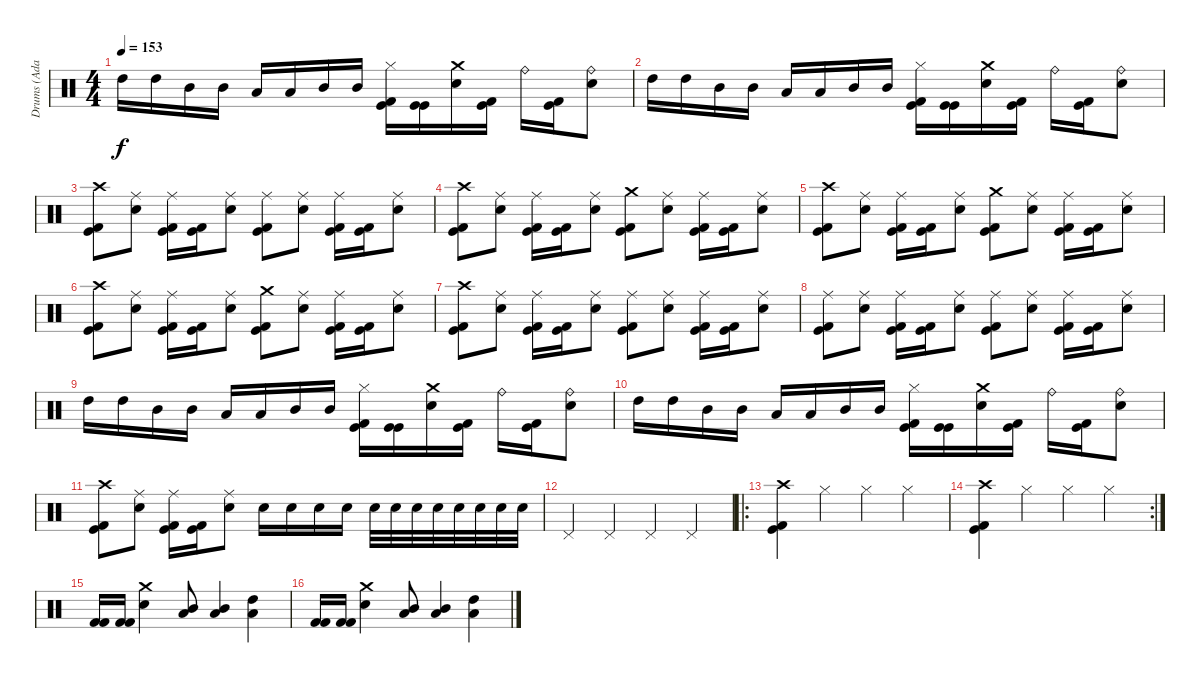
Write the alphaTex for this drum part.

\track ("Drums (Adam)" "Drums (Ada") {instrument percussion}
\staff {score}
\articulation defaults
\ts (4 4)
\tempo 153
\clef neutral
\ks c "High Tom (hit)".16{dy f} "High Tom (hit)".16 "Mid Tom (hit)".16 "Mid Tom (hit)".16 "Low Tom (hit)".16 "Low Tom (hit)".16 "Mid Tom (hit)".16 "Mid Tom (hit)".16
("Hi-Hat (closed)" "Kick (hit)" "Kick (hit) 2").16 ("Kick (hit)" "Kick (hit)").16 ("Crash medium (hit)" "Snare (hit) 2").16 ("Kick (hit)" "Kick (hit) 2").16 "Ride (bell)".16 ("Kick (hit)" "Kick (hit) 2").16 ("Ride (bell)" "Snare (hit) 2").8 |
"High Tom (hit)".16 "High Tom (hit)".16 "Mid Tom (hit)".16 "Mid Tom (hit)".16 "Low Tom (hit)".16 "Low Tom (hit)".16 "Mid Tom (hit)".16 "Mid Tom (hit)".16 ("Hi-Hat (closed)" "Kick (hit)" "Kick (hit) 2").16 ("Kick (hit)" "Kick (hit)").16 ("Crash medium (hit)" "Snare (hit) 2").16 ("Kick (hit)" "Kick (hit) 2").16 "Ride (bell)".16 ("Kick (hit)" "Kick (hit) 2").16 ("Ride (bell)" "Snare (hit) 2").8 |
("Crash high (hit)" "Kick (hit)" "Kick (hit) 2").8 ("Ride (middle)" "Snare (hit) 2").8 ("Ride (middle)" "Kick (hit)" "Kick (hit) 2").16 ("Kick (hit)" "Kick (hit) 2").16 ("Ride (middle)" "Snare (hit) 2").8 ("Ride (middle)" "Kick (hit)" "Kick (hit) 2").8 ("Ride (middle)" "Snare (hit) 2").8 ("Ride (middle)" "Kick (hit)" "Kick (hit) 2").16 ("Kick (hit)" "Kick (hit) 2").16 ("Ride (middle)" "Snare (hit) 2").8 |
("Crash high (hit)" "Kick (hit)" "Kick (hit) 2").8 ("Ride (middle)" "Snare (hit) 2").8 ("Ride (middle)" "Kick (hit)" "Kick (hit) 2").16 ("Kick (hit)" "Kick (hit) 2").16 ("Ride (middle)" "Snare (hit) 2").8 ("Crash medium (hit)" "Kick (hit)" "Kick (hit) 2").8 ("Ride (middle)" "Snare (hit) 2").8 ("Ride (middle)" "Kick (hit)" "Kick (hit) 2").16 ("Kick (hit)" "Kick (hit) 2").16 ("Ride (middle)" "Snare (hit) 2").8 |
("Crash high (hit)" "Kick (hit)" "Kick (hit) 2").8 ("Ride (middle)" "Snare (hit) 2").8 ("Ride (middle)" "Kick (hit)" "Kick (hit) 2").16 ("Kick (hit)" "Kick (hit) 2").16 ("Ride (middle)" "Snare (hit) 2").8 ("Crash medium (hit)" "Kick (hit)" "Kick (hit) 2").8 ("Ride (middle)" "Snare (hit) 2").8 ("Ride (middle)" "Kick (hit)" "Kick (hit) 2").16 ("Kick (hit)" "Kick (hit) 2").16 ("Ride (middle)" "Snare (hit) 2").8 |
("Crash high (hit)" "Kick (hit)" "Kick (hit) 2").8 ("Ride (middle)" "Snare (hit) 2").8 ("Ride (middle)" "Kick (hit)" "Kick (hit) 2").16 ("Kick (hit)" "Kick (hit) 2").16 ("Ride (middle)" "Snare (hit) 2").8 ("Crash medium (hit)" "Kick (hit)" "Kick (hit) 2").8 ("Ride (middle)" "Snare (hit) 2").8 ("Ride (middle)" "Kick (hit)" "Kick (hit) 2").16 ("Kick (hit)" "Kick (hit) 2").16 ("Ride (middle)" "Snare (hit) 2").8 |
("Crash high (hit)" "Kick (hit)" "Kick (hit) 2").8 ("Ride (middle)" "Snare (hit) 2").8 ("Ride (middle)" "Kick (hit)" "Kick (hit) 2").16 ("Kick (hit)" "Kick (hit) 2").16 ("Ride (middle)" "Snare (hit) 2").8 ("Ride (middle)" "Kick (hit)" "Kick (hit) 2").8 ("Ride (middle)" "Snare (hit) 2").8 ("Ride (middle)" "Kick (hit)" "Kick (hit) 2").16 ("Kick (hit)" "Kick (hit) 2").16 ("Ride (middle)" "Snare (hit) 2").8 |
("Ride (middle)" "Kick (hit)" "Kick (hit) 2").8 ("Ride (middle)" "Snare (hit) 2").8 ("Ride (middle)" "Kick (hit)" "Kick (hit) 2").16 ("Kick (hit)" "Kick (hit) 2").16 ("Ride (middle)" "Snare (hit) 2").8 ("Ride (middle)" "Kick (hit)" "Kick (hit) 2").8 ("Ride (middle)" "Snare (hit) 2").8 ("Ride (middle)" "Kick (hit)" "Kick (hit) 2").16 ("Kick (hit)" "Kick (hit) 2").16 ("Ride (middle)" "Snare (hit) 2").8 |
"High Tom (hit)".16 "High Tom (hit)".16 "Mid Tom (hit)".16 "Mid Tom (hit)".16 "Low Tom (hit)".16 "Low Tom (hit)".16 "Mid Tom (hit)".16 "Mid Tom (hit)".16 ("Hi-Hat (closed)" "Kick (hit)" "Kick (hit) 2").16 ("Kick (hit)" "Kick (hit)").16 ("Crash medium (hit)" "Snare (hit) 2").16 ("Kick (hit)" "Kick (hit) 2").16 "Ride (bell)".16 ("Kick (hit)" "Kick (hit) 2").16 ("Ride (bell)" "Snare (hit) 2").8 |
"High Tom (hit)".16 "High Tom (hit)".16 "Mid Tom (hit)".16 "Mid Tom (hit)".16 "Low Tom (hit)".16 "Low Tom (hit)".16 "Mid Tom (hit)".16 "Mid Tom (hit)".16 ("Hi-Hat (closed)" "Kick (hit)" "Kick (hit) 2").16 ("Kick (hit)" "Kick (hit)").16 ("Crash medium (hit)" "Snare (hit) 2").16 ("Kick (hit)" "Kick (hit) 2").16 "Ride (bell)".16 ("Kick (hit)" "Kick (hit) 2").16 ("Ride (bell)" "Snare (hit) 2").8 |
("Crash high (hit)" "Kick (hit)" "Kick (hit) 2").8 ("Ride (middle)" "Snare (hit) 2").8 ("Ride (middle)" "Kick (hit)" "Kick (hit) 2").16 ("Kick (hit)" "Kick (hit) 2").16 ("Ride (middle)" "Snare (hit) 2").8 "Snare (hit) 2".16 "Snare (hit) 2".16 "Snare (hit) 2".16 "Snare (hit) 2".16 "Snare (hit) 2".32 "Snare (hit) 2".32 "Snare (hit) 2".32 "Snare (hit) 2".32 "Snare (hit) 2".32 "Snare (hit) 2".32 "Snare (hit) 2".32 "Snare (hit) 2".32 |
"Pedal Hi-Hat (hit)".4 "Pedal Hi-Hat (hit)".4 "Pedal Hi-Hat (hit)".4 "Pedal Hi-Hat (hit)".4 |
\ro
("Crash high (hit)" "Kick (hit)" "Kick (hit) 2").4 "Hi-Hat (closed)".4 "Hi-Hat (closed)".4 "Hi-Hat (closed)".4 |
\rc 2
("Crash high (hit)" "Kick (hit)" "Kick (hit) 2").4 "Hi-Hat (closed)".4 "Hi-Hat (closed)".4 "Hi-Hat (closed)".4 |
("Kick (hit) 2" "Kick (hit) 2").16 ("Kick (hit) 2" "Kick (hit) 2").16 ("Crash medium (hit)" "Snare (hit) 2").4 ("Low Tom (hit)" "Mid Tom (hit)").8 ("Low Tom (hit)" "Mid Tom (hit)").4 ("Low Tom (hit)" "High Tom (hit)").4 |
("Kick (hit) 2" "Kick (hit) 2").16 ("Kick (hit) 2" "Kick (hit) 2").16 ("Crash medium (hit)" "Snare (hit) 2").4 ("Low Tom (hit)" "Mid Tom (hit)").8 ("Low Tom (hit)" "Mid Tom (hit)").4 ("Low Tom (hit)" "High Tom (hit)").4
